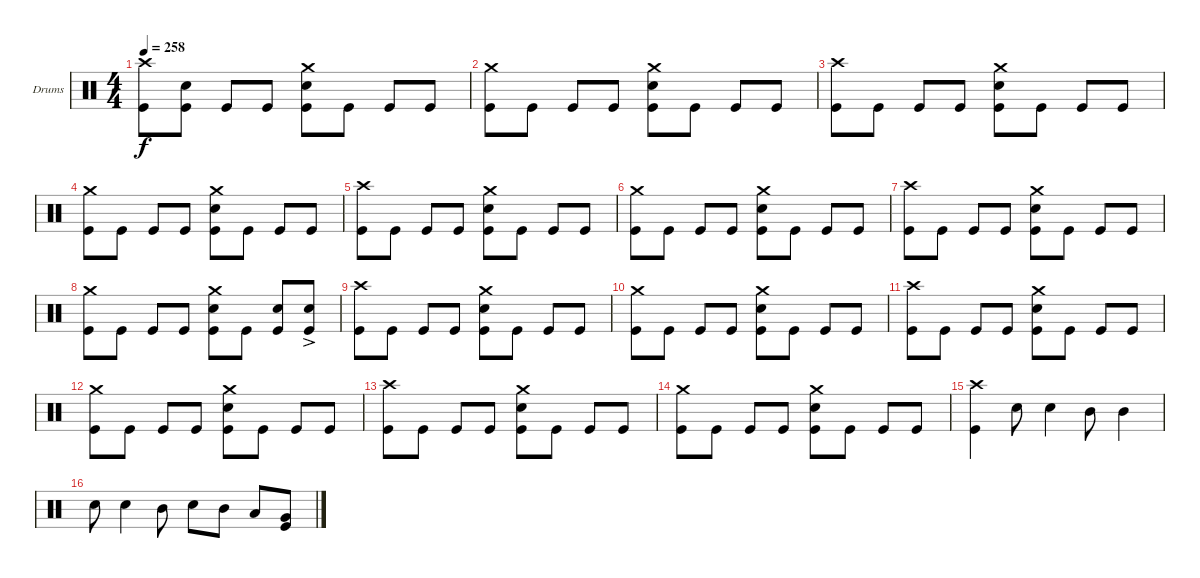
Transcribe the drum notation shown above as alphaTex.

\defaultSystemsLayout 4
\bracketExtendMode groupsimilarinstruments
\firstSystemTrackNameOrientation horizontal
\otherSystemsTrackNameOrientation horizontal
\track ("Drumkit" "Drums") {instrument percussion}
\staff {score}
\articulation defaults
\ts (4 4)
\tempo 258
\clef neutral
\ks c
("Kick (hit)" "Crash high (hit)").8{dy f} ("Kick (hit)" "Snare (hit) 2").8 "Kick (hit)".8 "Kick (hit)".8 ("Kick (hit)" "Crash medium (hit)" "Snare (hit) 2").8 "Kick (hit)".8 "Kick (hit)".8 "Kick (hit)".8 |
("Crash medium (hit)" "Kick (hit)").8 "Kick (hit)".8 "Kick (hit)".8 "Kick (hit)".8 ("Kick (hit)" "Snare (hit) 2" "Crash medium (hit)").8 "Kick (hit)".8 "Kick (hit)".8 "Kick (hit)".8 |
("Kick (hit)" "Crash high (hit)").8 "Kick (hit)".8 "Kick (hit)".8 "Kick (hit)".8 ("Kick (hit)" "Snare (hit) 2" "Crash medium (hit)").8 "Kick (hit)".8 "Kick (hit)".8 "Kick (hit)".8 |
("Crash medium (hit)" "Kick (hit)").8 "Kick (hit)".8 "Kick (hit)".8 "Kick (hit)".8 ("Kick (hit)" "Snare (hit) 2" "Crash medium (hit)").8 "Kick (hit)".8 "Kick (hit)".8 "Kick (hit)".8 |
("Kick (hit)" "Crash high (hit)").8 "Kick (hit)".8 "Kick (hit)".8 "Kick (hit)".8 ("Kick (hit)" "Snare (hit) 2" "Crash medium (hit)").8 "Kick (hit)".8 "Kick (hit)".8 "Kick (hit)".8 |
("Crash medium (hit)" "Kick (hit)").8 "Kick (hit)".8 "Kick (hit)".8 "Kick (hit)".8 ("Kick (hit)" "Snare (hit) 2" "Crash medium (hit)").8 "Kick (hit)".8 "Kick (hit)".8 "Kick (hit)".8 |
("Kick (hit)" "Crash high (hit)").8 "Kick (hit)".8 "Kick (hit)".8 "Kick (hit)".8 ("Kick (hit)" "Snare (hit) 2" "Crash medium (hit)").8 "Kick (hit)".8 "Kick (hit)".8 "Kick (hit)".8 |
("Crash medium (hit)" "Kick (hit)").8 "Kick (hit)".8 "Kick (hit)".8 "Kick (hit)".8 ("Kick (hit)" "Snare (hit) 2" "Crash medium (hit)").8 "Kick (hit)".8 ("Kick (hit)" "Snare (hit) 2").8 ("Kick (hit)" "Snare (hit) 2"{ac}).8 |
("Kick (hit)" "Crash high (hit)").8 "Kick (hit)".8 "Kick (hit)".8 "Kick (hit)".8 ("Kick (hit)" "Snare (hit) 2" "Crash medium (hit)").8 "Kick (hit)".8 "Kick (hit)".8 "Kick (hit)".8 |
("Crash medium (hit)" "Kick (hit)").8 "Kick (hit)".8 "Kick (hit)".8 "Kick (hit)".8 ("Kick (hit)" "Snare (hit) 2" "Crash medium (hit)").8 "Kick (hit)".8 "Kick (hit)".8 "Kick (hit)".8 |
("Kick (hit)" "Crash high (hit)").8 "Kick (hit)".8 "Kick (hit)".8 "Kick (hit)".8 ("Kick (hit)" "Snare (hit) 2" "Crash medium (hit)").8 "Kick (hit)".8 "Kick (hit)".8 "Kick (hit)".8 |
("Crash medium (hit)" "Kick (hit)").8 "Kick (hit)".8 "Kick (hit)".8 "Kick (hit)".8 ("Kick (hit)" "Snare (hit) 2" "Crash medium (hit)").8 "Kick (hit)".8 "Kick (hit)".8 "Kick (hit)".8 |
("Kick (hit)" "Crash high (hit)").8 "Kick (hit)".8 "Kick (hit)".8 "Kick (hit)".8 ("Kick (hit)" "Snare (hit) 2" "Crash medium (hit)").8 "Kick (hit)".8 "Kick (hit)".8 "Kick (hit)".8 |
("Crash medium (hit)" "Kick (hit)").8 "Kick (hit)".8 "Kick (hit)".8 "Kick (hit)".8 ("Kick (hit)" "Snare (hit) 2" "Crash medium (hit)").8 "Kick (hit)".8 "Kick (hit)".8 "Kick (hit)".8 |
("Crash high (hit)" "Kick (hit)").4 "Snare (hit) 2".8 "Snare (hit) 2".4 "Mid Tom (hit)".8 "Mid Tom (hit)".4 |
"Snare (hit) 2".8 "Snare (hit) 2".4 "Mid Tom (hit)".8 "Snare (hit) 2".8 "Mid Tom (hit)".8 "Low Tom (hit)".8 ("Very Low Tom (hit)" "Kick (hit)").8
